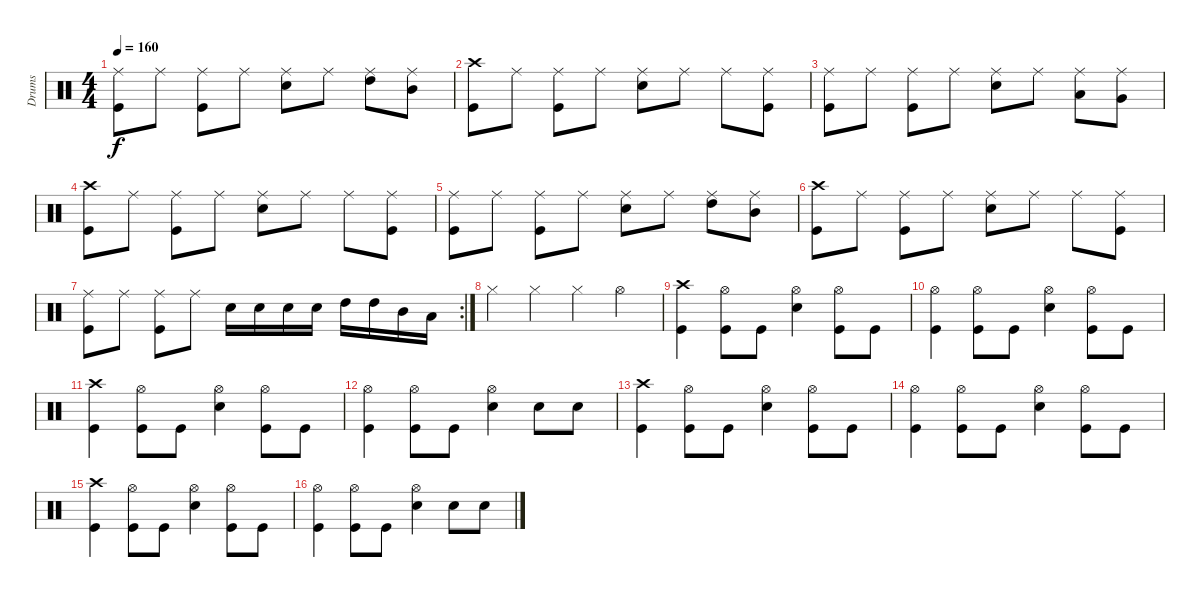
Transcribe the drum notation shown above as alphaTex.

\track ("Drums" "Drums") {instrument percussion}
\staff {score}
\articulation defaults
\ts (4 4)
\tempo 160
\clef neutral
\ks c
("Ride (middle)" "Kick (hit)").8{dy f} "Ride (middle)".8 ("Ride (middle)" "Kick (hit)").8 "Ride (middle)".8 ("Ride (middle)" "Snare (hit) 2").8 "Ride (middle)".8 ("Ride (middle)" "High Tom (hit)").8 ("Ride (middle)" "Mid Tom (hit)").8 |
("Crash high (hit)" "Kick (hit)").8 "Ride (middle)".8 ("Ride (middle)" "Kick (hit)").8 "Ride (middle)".8 ("Ride (middle)" "Snare (hit) 2").8 "Ride (middle)".8 "Ride (middle)".8 ("Ride (middle)" "Kick (hit)").8 |
("Ride (middle)" "Kick (hit)").8 "Ride (middle)".8 ("Ride (middle)" "Kick (hit)").8 "Ride (middle)".8 ("Ride (middle)" "Snare (hit) 2").8 "Ride (middle)".8 ("Ride (middle)" "Low Tom (hit)").8 ("Ride (middle)" "Very Low Tom (hit)").8 |
("Crash high (hit)" "Kick (hit)").8 "Ride (middle)".8 ("Ride (middle)" "Kick (hit)").8 "Ride (middle)".8 ("Ride (middle)" "Snare (hit) 2").8 "Ride (middle)".8 "Ride (middle)".8 ("Ride (middle)" "Kick (hit)").8 |
("Ride (middle)" "Kick (hit)").8 "Ride (middle)".8 ("Ride (middle)" "Kick (hit)").8 "Ride (middle)".8 ("Ride (middle)" "Snare (hit) 2").8 "Ride (middle)".8 ("Ride (middle)" "High Tom (hit)").8 ("Ride (middle)" "Mid Tom (hit)").8 |
("Crash high (hit)" "Kick (hit)").8 "Ride (middle)".8 ("Ride (middle)" "Kick (hit)").8 "Ride (middle)".8 ("Ride (middle)" "Snare (hit) 2").8 "Ride (middle)".8 "Ride (middle)".8 ("Ride (middle)" "Kick (hit)").8 |
\rc 2
("Ride (middle)" "Kick (hit)").8 "Ride (middle)".8 ("Ride (middle)" "Kick (hit)").8 "Ride (middle)".8 "Snare (hit) 2".16 "Snare (hit) 2".16 "Snare (hit) 2".16 "Snare (hit) 2".16 "High Tom (hit)".16 "High Tom (hit)".16 "Mid Tom (hit)".16 "Low Tom (hit)".16 |
"Hi-Hat (closed)".4 "Hi-Hat (closed)".4 "Hi-Hat (closed)".4 "Hi-Hat (open)".4 |
("Crash high (hit)" "Kick (hit)").4 ("Hi-Hat (open)" "Kick (hit)").8 "Kick (hit)".8 ("Hi-Hat (open)" "Snare (hit) 2").4 ("Hi-Hat (open)" "Kick (hit)").8 "Kick (hit)".8 |
("Hi-Hat (open)" "Kick (hit)").4 ("Hi-Hat (open)" "Kick (hit)").8 "Kick (hit)".8 ("Hi-Hat (open)" "Snare (hit) 2").4 ("Hi-Hat (open)" "Kick (hit)").8 "Kick (hit)".8 |
("Crash high (hit)" "Kick (hit)").4 ("Hi-Hat (open)" "Kick (hit)").8 "Kick (hit)".8 ("Hi-Hat (open)" "Snare (hit) 2").4 ("Hi-Hat (open)" "Kick (hit)").8 "Kick (hit)".8 |
("Hi-Hat (open)" "Kick (hit)").4 ("Hi-Hat (open)" "Kick (hit)").8 "Kick (hit)".8 ("Hi-Hat (open)" "Snare (hit) 2").4 "Snare (hit) 2".8 "Snare (hit) 2".8 |
("Crash high (hit)" "Kick (hit)").4 ("Hi-Hat (open)" "Kick (hit)").8 "Kick (hit)".8 ("Hi-Hat (open)" "Snare (hit) 2").4 ("Hi-Hat (open)" "Kick (hit)").8 "Kick (hit)".8 |
("Hi-Hat (open)" "Kick (hit)").4 ("Hi-Hat (open)" "Kick (hit)").8 "Kick (hit)".8 ("Hi-Hat (open)" "Snare (hit) 2").4 ("Hi-Hat (open)" "Kick (hit)").8 "Kick (hit)".8 |
("Crash high (hit)" "Kick (hit)").4 ("Hi-Hat (open)" "Kick (hit)").8 "Kick (hit)".8 ("Hi-Hat (open)" "Snare (hit) 2").4 ("Hi-Hat (open)" "Kick (hit)").8 "Kick (hit)".8 |
("Hi-Hat (open)" "Kick (hit)").4 ("Hi-Hat (open)" "Kick (hit)").8 "Kick (hit)".8 ("Hi-Hat (open)" "Snare (hit) 2").4 "Snare (hit) 2".8 "Snare (hit) 2".8
